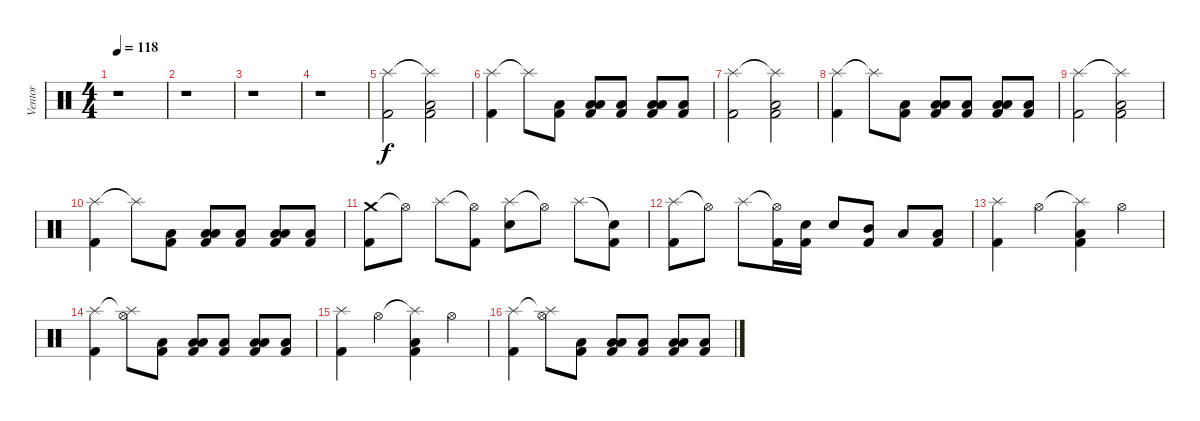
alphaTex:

\track ("Ventor" "Ventor") {instrument percussion}
\staff {score}
\articulation defaults
\ts (4 4)
\tempo 118
\clef neutral
\ks c
r.1{dy f} |
r.1 |
r.1 |
r.1 |
("Splash (hit)" "Kick (hit) 2").2 ("Splash (hit)"{t} "Low Floor Tom (hit)" "Kick (hit) 2").2 |
("Splash (hit)" "Kick (hit) 2").4 "Splash (hit)"{t}.8 ("Low Floor Tom (hit)" "Kick (hit) 2").8 ("Low Floor Tom (hit)" "Low Tom (hit)" "Kick (hit) 2").8 ("Low Floor Tom (hit)" "Kick (hit) 2").8 ("Low Floor Tom (hit)" "Low Tom (hit)" "Kick (hit) 2").8 ("Low Floor Tom (hit)" "Kick (hit) 2").8 |
("Splash (hit)" "Kick (hit) 2").2 ("Splash (hit)"{t} "Low Floor Tom (hit)" "Kick (hit) 2").2 |
("Splash (hit)" "Kick (hit) 2").4 "Splash (hit)"{t}.8 ("Low Floor Tom (hit)" "Kick (hit) 2").8 ("Low Floor Tom (hit)" "Low Tom (hit)" "Kick (hit) 2").8 ("Low Floor Tom (hit)" "Kick (hit) 2").8 ("Low Floor Tom (hit)" "Low Tom (hit)" "Kick (hit) 2").8 ("Low Floor Tom (hit)" "Kick (hit) 2").8 |
("Splash (hit)" "Kick (hit) 2").2 ("Splash (hit)"{t} "Low Floor Tom (hit)" "Kick (hit) 2").2 |
("Splash (hit)" "Kick (hit) 2").4 "Splash (hit)"{t}.8 ("Low Floor Tom (hit)" "Kick (hit) 2").8 ("Low Floor Tom (hit)" "Low Tom (hit)" "Kick (hit) 2").8 ("Low Floor Tom (hit)" "Kick (hit) 2").8 ("Low Floor Tom (hit)" "Low Tom (hit)" "Kick (hit) 2").8 ("Low Floor Tom (hit)" "Kick (hit) 2").8 |
("Crash medium (hit)" "Kick (hit) 2").8 "Hi-Hat (open)"{t}.8 "Splash (hit)".8 ("Hi-Hat (open)"{t} "Kick (hit) 2").8 ("Splash (hit)" "Electric Snare (hit)").8 "Hi-Hat (open)"{t}.8 "Splash (hit)".8 ("Snare (hit)"{t} "Kick (hit) 2").8 |
("Splash (hit)" "Kick (hit) 2").8 "Hi-Hat (open)"{t}.8 "Splash (hit)".8 ("Hi-Hat (open)"{t} "Kick (hit) 2").16 ("Electric Snare (hit)" "Kick (hit) 2").16 "Electric Snare (hit)".8 ("Mid Tom (hit)" "Kick (hit) 2").8 "Low Tom (hit)".8 ("Low Floor Tom (hit)" "Kick (hit) 2").8 |
("Splash (hit)" "Kick (hit) 2").4 "Hi-Hat (open)".4 ("Splash (hit)"{t} "Low Floor Tom (hit)" "Kick (hit) 2").4 "Hi-Hat (open)".4 |
("Splash (hit)" "Kick (hit) 2").4 ("Splash (hit)"{t} "Hi-Hat (open)").8 ("Low Floor Tom (hit)" "Kick (hit) 2").8 ("Low Floor Tom (hit)" "Low Tom (hit)" "Kick (hit) 2").8 ("Low Floor Tom (hit)" "Kick (hit) 2").8 ("Low Floor Tom (hit)" "Low Tom (hit)" "Kick (hit) 2").8 ("Low Floor Tom (hit)" "Kick (hit) 2").8 |
("Splash (hit)" "Kick (hit) 2").4 "Hi-Hat (open)".4 ("Splash (hit)"{t} "Low Floor Tom (hit)" "Kick (hit) 2").4 "Hi-Hat (open)".4 |
("Splash (hit)" "Kick (hit) 2").4 ("Splash (hit)"{t} "Hi-Hat (open)").8 ("Low Floor Tom (hit)" "Kick (hit) 2").8 ("Low Floor Tom (hit)" "Low Tom (hit)" "Kick (hit) 2").8 ("Low Floor Tom (hit)" "Kick (hit) 2").8 ("Low Floor Tom (hit)" "Low Tom (hit)" "Kick (hit) 2").8 ("Low Floor Tom (hit)" "Kick (hit) 2").8
